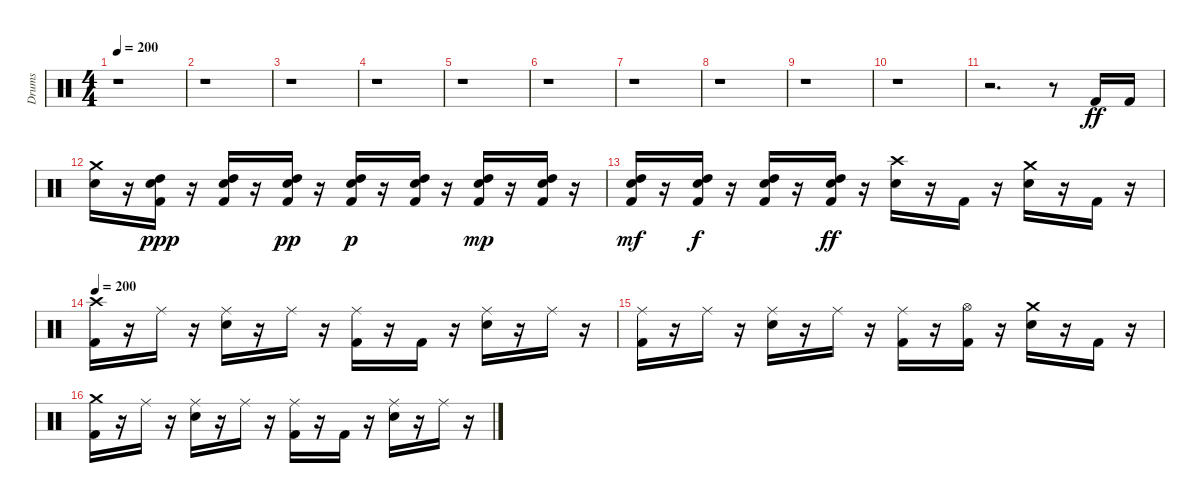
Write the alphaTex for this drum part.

\track ("Drums" "Drums") {instrument percussion}
\staff {score}
\articulation defaults
\ts (4 4)
\tempo 200
\clef neutral
\ks c
r.1{dy ff} |
r.1 |
r.1 |
r.1 |
r.1 |
r.1 |
r.1 |
r.1 |
r.1 |
r.1 |
r.2{d} r.8 "Kick (hit) 2".16 "Kick (hit) 2".16 |
("Snare (hit) 2" "Crash medium (hit)").16 r.16 ("Kick (hit) 2" "Snare (hit) 2" "High Tom (hit)").16{dy ppp} r.16 ("Kick (hit) 2" "Snare (hit) 2" "High Tom (hit)").16 r.16 ("Kick (hit) 2" "Snare (hit) 2" "High Tom (hit)").16{dy pp} r.16 ("Kick (hit) 2" "Snare (hit) 2" "High Tom (hit)").16{dy p} r.16 ("Kick (hit) 2" "Snare (hit) 2" "High Tom (hit)").16 r.16 ("Kick (hit) 2" "Snare (hit) 2" "High Tom (hit)").16{dy mp} r.16 ("Kick (hit) 2" "Snare (hit) 2" "High Tom (hit)").16 r.16 |
("Kick (hit) 2" "Snare (hit) 2" "High Tom (hit)").16{dy mf} r.16 ("Kick (hit) 2" "Snare (hit) 2" "High Tom (hit)").16{dy f} r.16 ("Kick (hit) 2" "Snare (hit) 2" "High Tom (hit)").16 r.16 ("Kick (hit) 2" "Snare (hit) 2" "High Tom (hit)").16{dy ff} r.16 ("Snare (hit) 2" "Crash high (hit)").16 r.16 "Kick (hit) 2".16 r.16 ("Snare (hit) 2" "Crash medium (hit)").16 r.16 "Kick (hit) 2".16 r.16 |
\tempo 200
("Kick (hit) 2" "Crash high (hit)").16 r.16 "Ride (middle)".16 r.16 ("Snare (hit) 2" "Ride (middle)").16 r.16 "Ride (middle)".16 r.16 ("Kick (hit) 2" "Ride (middle)").16 r.16 "Kick (hit) 2".16 r.16 ("Snare (hit) 2" "Ride (middle)").16 r.16 "Ride (middle)".16 r.16 |
("Kick (hit) 2" "Ride (middle)").16 r.16 "Ride (middle)".16 r.16 ("Snare (hit) 2" "Ride (middle)").16 r.16 "Ride (middle)".16 r.16 ("Kick (hit) 2" "Ride (middle)").16 r.16 ("Kick (hit) 2" "Hi-Hat (open)").16 r.16 ("Snare (hit) 2" "Crash medium (hit)").16 r.16 "Kick (hit) 2".16 r.16 |
("Kick (hit) 2" "Crash medium (hit)").16 r.16 "Ride (middle)".16 r.16 ("Snare (hit) 2" "Ride (middle)").16 r.16 "Ride (middle)".16 r.16 ("Kick (hit) 2" "Ride (middle)").16 r.16 "Kick (hit) 2".16 r.16 ("Snare (hit) 2" "Ride (middle)").16 r.16 "Ride (middle)".16 r.16
